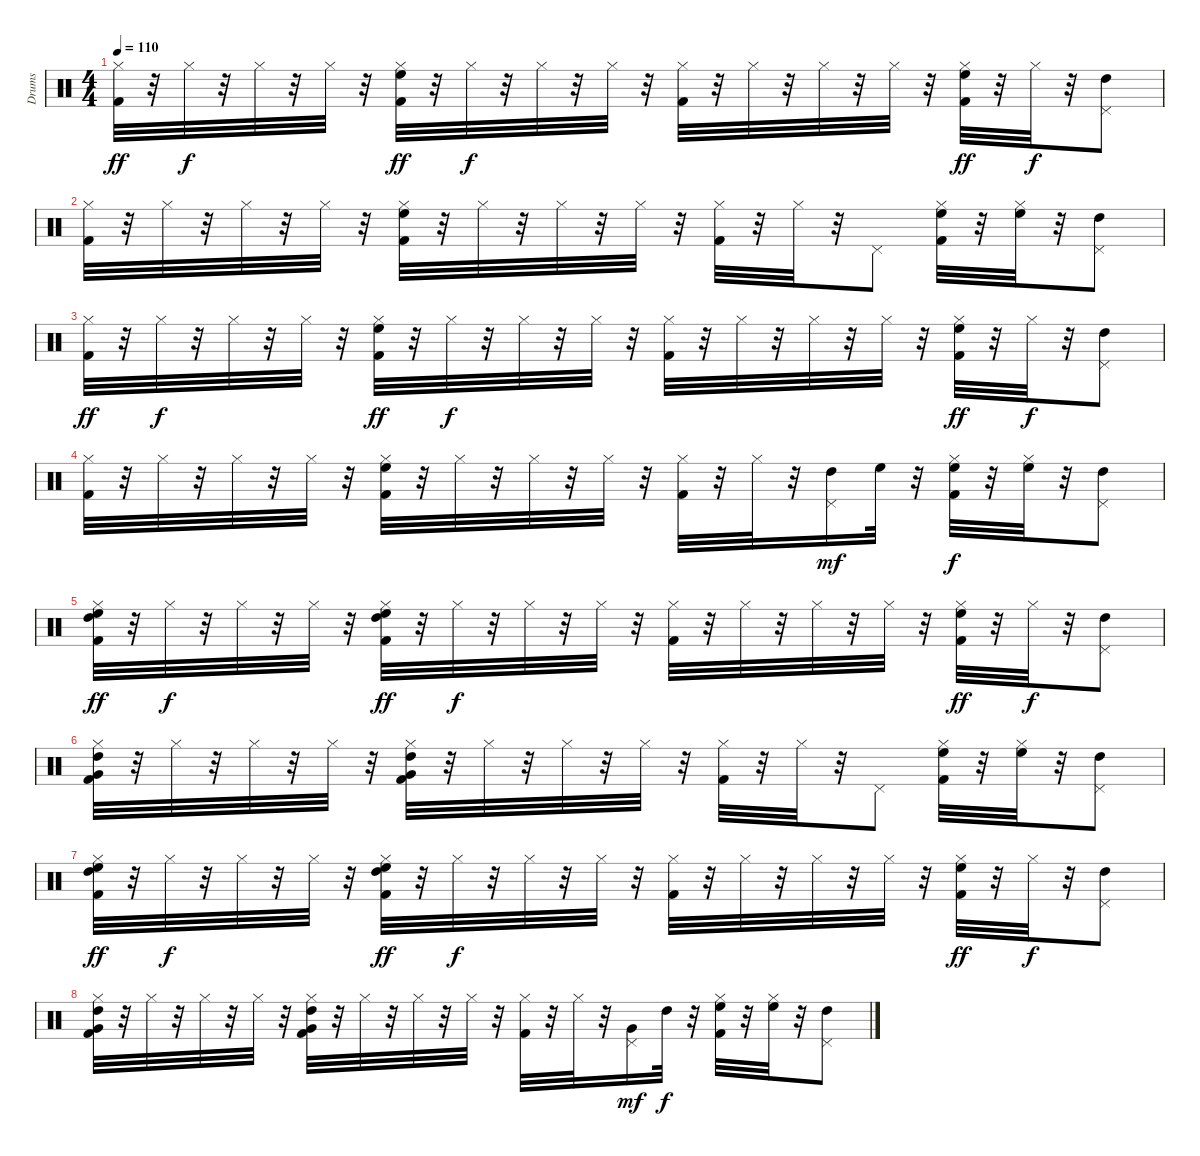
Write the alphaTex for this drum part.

\track ("Drums" "Drums") {instrument percussion}
\staff {score}
\articulation defaults
\ts (4 4)
\tempo 110
\clef neutral
\ks c
("Kick (hit) 2" "Hi-Hat (closed)").32{dy ff} r.32 "Hi-Hat (closed)".32{dy f} r.32 "Hi-Hat (closed)".32 r.32 "Hi-Hat (closed)".32 r.32 ("Kick (hit) 2" "Hi-Hat (closed)" "High Floor Tom (hit)").32{dy ff} r.32 "Hi-Hat (closed)".32{dy f} r.32 "Hi-Hat (closed)".32 r.32 "Hi-Hat (closed)".32 r.32 ("Kick (hit) 2" "Hi-Hat (closed)").32 r.32 "Hi-Hat (closed)".32 r.32 "Hi-Hat (closed)".32 r.32 "Hi-Hat (closed)".32 r.32 ("Kick (hit) 2" "Hi-Hat (closed)" "High Floor Tom (hit)").32{dy ff} r.32 "Hi-Hat (closed)".32{dy f} r.32 ("Pedal Hi-Hat (hit)" "High Tom (hit)").8 |
("Kick (hit) 2" "Hi-Hat (closed)").32 r.32 "Hi-Hat (closed)".32 r.32 "Hi-Hat (closed)".32 r.32 "Hi-Hat (closed)".32 r.32 ("Kick (hit) 2" "Hi-Hat (closed)" "High Floor Tom (hit)").32 r.32 "Hi-Hat (closed)".32 r.32 "Hi-Hat (closed)".32 r.32 "Hi-Hat (closed)".32 r.32 ("Kick (hit) 2" "Hi-Hat (closed)").32 r.32 "Hi-Hat (closed)".32 r.32 "Pedal Hi-Hat (hit)".8 ("Kick (hit) 2" "Hi-Hat (closed)" "High Floor Tom (hit)").32 r.32 ("Hi-Hat (closed)" "High Floor Tom (hit)").32 r.32 ("Pedal Hi-Hat (hit)" "High Tom (hit)").8 |
("Kick (hit) 2" "Hi-Hat (closed)").32{dy ff} r.32 "Hi-Hat (closed)".32{dy f} r.32 "Hi-Hat (closed)".32 r.32 "Hi-Hat (closed)".32 r.32 ("Kick (hit) 2" "Hi-Hat (closed)" "High Floor Tom (hit)").32{dy ff} r.32 "Hi-Hat (closed)".32{dy f} r.32 "Hi-Hat (closed)".32 r.32 "Hi-Hat (closed)".32 r.32 ("Kick (hit) 2" "Hi-Hat (closed)").32 r.32 "Hi-Hat (closed)".32 r.32 "Hi-Hat (closed)".32 r.32 "Hi-Hat (closed)".32 r.32 ("Kick (hit) 2" "Hi-Hat (closed)" "High Floor Tom (hit)").32{dy ff} r.32 "Hi-Hat (closed)".32{dy f} r.32 ("Pedal Hi-Hat (hit)" "High Tom (hit)").8 |
("Kick (hit) 2" "Hi-Hat (closed)").32 r.32 "Hi-Hat (closed)".32 r.32 "Hi-Hat (closed)".32 r.32 "Hi-Hat (closed)".32 r.32 ("Kick (hit) 2" "Hi-Hat (closed)" "High Floor Tom (hit)").32 r.32 "Hi-Hat (closed)".32 r.32 "Hi-Hat (closed)".32 r.32 "Hi-Hat (closed)".32 r.32 ("Kick (hit) 2" "Hi-Hat (closed)").32 r.32 "Hi-Hat (closed)".32 r.32 ("Pedal Hi-Hat (hit)" "High Tom (hit)").16{dy mf} "High Floor Tom (hit)".32 r.32 ("Kick (hit) 2" "Hi-Hat (closed)" "High Floor Tom (hit)").32{dy f} r.32 ("Hi-Hat (closed)" "High Floor Tom (hit)").32 r.32 ("Pedal Hi-Hat (hit)" "High Tom (hit)").8 |
("Kick (hit) 2" "Hi-Hat (closed)" "High Tom (hit)" "High Floor Tom (hit)").32{dy ff} r.32 "Hi-Hat (closed)".32{dy f} r.32 "Hi-Hat (closed)".32 r.32 "Hi-Hat (closed)".32 r.32 ("Kick (hit) 2" "Hi-Hat (closed)" "High Tom (hit)" "High Floor Tom (hit)").32{dy ff} r.32 "Hi-Hat (closed)".32{dy f} r.32 "Hi-Hat (closed)".32 r.32 "Hi-Hat (closed)".32 r.32 ("Kick (hit) 2" "Hi-Hat (closed)").32 r.32 "Hi-Hat (closed)".32 r.32 "Hi-Hat (closed)".32 r.32 "Hi-Hat (closed)".32 r.32 ("Kick (hit) 2" "Hi-Hat (closed)" "High Floor Tom (hit)").32{dy ff} r.32 "Hi-Hat (closed)".32{dy f} r.32 ("Pedal Hi-Hat (hit)" "High Tom (hit)").8 |
("Kick (hit) 2" "Hi-Hat (closed)" "Very Low Tom (hit)" "High Tom (hit)").32 r.32 "Hi-Hat (closed)".32 r.32 "Hi-Hat (closed)".32 r.32 "Hi-Hat (closed)".32 r.32 ("Kick (hit) 2" "Hi-Hat (closed)" "Very Low Tom (hit)" "High Tom (hit)").32 r.32 "Hi-Hat (closed)".32 r.32 "Hi-Hat (closed)".32 r.32 "Hi-Hat (closed)".32 r.32 ("Kick (hit) 2" "Hi-Hat (closed)").32 r.32 "Hi-Hat (closed)".32 r.32 "Pedal Hi-Hat (hit)".8 ("Kick (hit) 2" "Hi-Hat (closed)" "High Floor Tom (hit)").32 r.32 ("Hi-Hat (closed)" "High Floor Tom (hit)").32 r.32 ("Pedal Hi-Hat (hit)" "High Tom (hit)").8 |
("Kick (hit) 2" "Hi-Hat (closed)" "High Tom (hit)" "High Floor Tom (hit)").32{dy ff} r.32 "Hi-Hat (closed)".32{dy f} r.32 "Hi-Hat (closed)".32 r.32 "Hi-Hat (closed)".32 r.32 ("Kick (hit) 2" "Hi-Hat (closed)" "High Tom (hit)" "High Floor Tom (hit)").32{dy ff} r.32 "Hi-Hat (closed)".32{dy f} r.32 "Hi-Hat (closed)".32 r.32 "Hi-Hat (closed)".32 r.32 ("Kick (hit) 2" "Hi-Hat (closed)").32 r.32 "Hi-Hat (closed)".32 r.32 "Hi-Hat (closed)".32 r.32 "Hi-Hat (closed)".32 r.32 ("Kick (hit) 2" "Hi-Hat (closed)" "High Floor Tom (hit)").32{dy ff} r.32 "Hi-Hat (closed)".32{dy f} r.32 ("Pedal Hi-Hat (hit)" "High Tom (hit)").8 |
("Kick (hit) 2" "Hi-Hat (closed)" "Very Low Tom (hit)" "High Tom (hit)").32 r.32 "Hi-Hat (closed)".32 r.32 "Hi-Hat (closed)".32 r.32 "Hi-Hat (closed)".32 r.32 ("Kick (hit) 2" "Hi-Hat (closed)" "Very Low Tom (hit)" "High Tom (hit)").32 r.32 "Hi-Hat (closed)".32 r.32 "Hi-Hat (closed)".32 r.32 "Hi-Hat (closed)".32 r.32 ("Kick (hit) 2" "Hi-Hat (closed)").32 r.32 "Hi-Hat (closed)".32 r.32 ("Very Low Tom (hit)" "Pedal Hi-Hat (hit)").16{dy mf} "High Tom (hit)".32{dy f} r.32 ("Kick (hit) 2" "Hi-Hat (closed)" "High Floor Tom (hit)").32 r.32 ("Hi-Hat (closed)" "High Floor Tom (hit)").32 r.32 ("Pedal Hi-Hat (hit)" "High Tom (hit)").8
